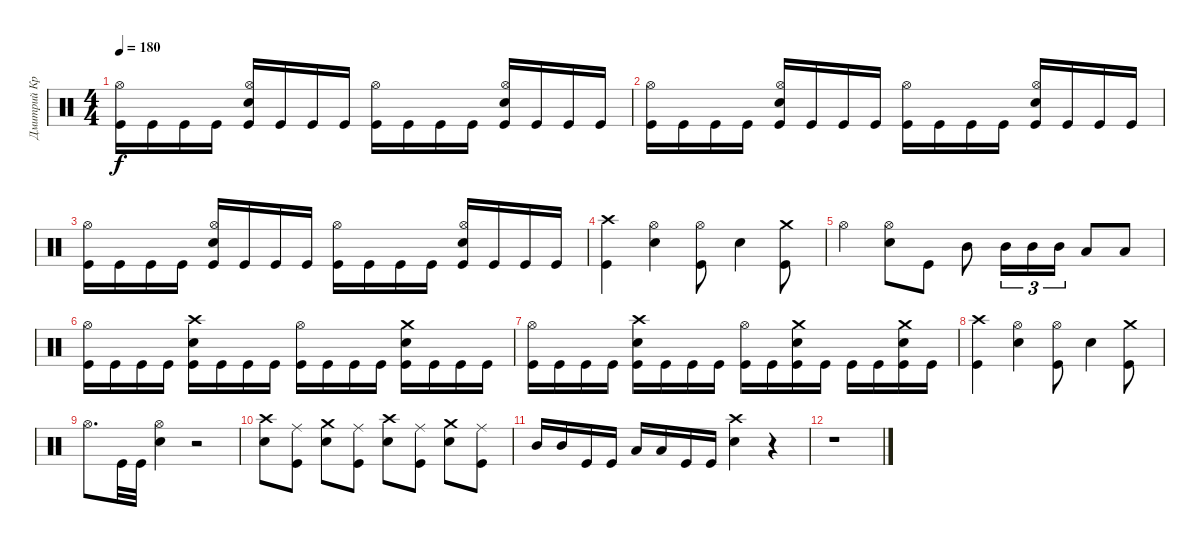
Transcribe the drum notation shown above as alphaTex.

\track ("Дмитрий Кривенков" "Дмитрий Кр") {instrument percussion}
\staff {score}
\articulation defaults
\ts (4 4)
\tempo 180
\clef neutral
\ks c
("Kick (hit)" "Hi-Hat (open)").16{dy f} "Kick (hit)".16 "Kick (hit)".16 "Kick (hit)".16 ("Kick (hit)" "Electric Snare (hit)" "Hi-Hat (open)").16 "Kick (hit)".16 "Kick (hit)".16 "Kick (hit)".16 ("Kick (hit)" "Hi-Hat (open)").16 "Kick (hit)".16 "Kick (hit)".16 "Kick (hit)".16 ("Kick (hit)" "Electric Snare (hit)" "Hi-Hat (open)").16 "Kick (hit)".16 "Kick (hit)".16 "Kick (hit)".16 |
("Kick (hit)" "Hi-Hat (open)").16 "Kick (hit)".16 "Kick (hit)".16 "Kick (hit)".16 ("Kick (hit)" "Electric Snare (hit)" "Hi-Hat (open)").16 "Kick (hit)".16 "Kick (hit)".16 "Kick (hit)".16 ("Kick (hit)" "Hi-Hat (open)").16 "Kick (hit)".16 "Kick (hit)".16 "Kick (hit)".16 ("Kick (hit)" "Electric Snare (hit)" "Hi-Hat (open)").16 "Kick (hit)".16 "Kick (hit)".16 "Kick (hit)".16 |
("Kick (hit)" "Hi-Hat (open)").16 "Kick (hit)".16 "Kick (hit)".16 "Kick (hit)".16 ("Hi-Hat (open)" "Electric Snare (hit)" "Kick (hit)").16 "Kick (hit)".16 "Kick (hit)".16 "Kick (hit)".16 ("Hi-Hat (open)" "Kick (hit)").16 "Kick (hit)".16 "Kick (hit)".16 "Kick (hit)".16 ("Hi-Hat (open)" "Electric Snare (hit)" "Kick (hit)").16 "Kick (hit)".16 "Kick (hit)".16 "Kick (hit)".16 |
("Crash high (hit)" "Kick (hit)").4 ("Hi-Hat (open)" "Electric Snare (hit)").4 ("Hi-Hat (open)" "Kick (hit)").8 "Electric Snare (hit)".4 ("Kick (hit)" "Crash medium (hit)").8 |
"Hi-Hat (open)".4 ("Electric Snare (hit)" "Hi-Hat (open)").8 "Kick (hit)".8 "Mid Tom (hit)".8 "Mid Tom (hit)".16{tu (3 2)} "Mid Tom (hit)".16{tu (3 2)} "Mid Tom (hit)".16{tu (3 2)} "Low Floor Tom (hit)".8 "Low Floor Tom (hit)".8 |
("Kick (hit)" "Hi-Hat (open)").16 "Kick (hit)".16 "Kick (hit)".16 "Kick (hit)".16 ("Kick (hit)" "Electric Snare (hit)" "Crash high (hit)").16 "Kick (hit)".16 "Kick (hit)".16 "Kick (hit)".16 ("Kick (hit)" "Hi-Hat (open)").16 "Kick (hit)".16 "Kick (hit)".16 "Kick (hit)".16 ("Kick (hit)" "Electric Snare (hit)" "Crash medium (hit)").16 "Kick (hit)".16 "Kick (hit)".16 "Kick (hit)".16 |
("Kick (hit)" "Hi-Hat (open)").16 "Kick (hit)".16 "Kick (hit)".16 "Kick (hit)".16 ("Kick (hit)" "Electric Snare (hit)" "Crash high (hit)").16 "Kick (hit)".16 "Kick (hit)".16 "Kick (hit)".16 ("Kick (hit)" "Hi-Hat (open)").16 "Kick (hit)".16 ("Kick (hit)" "Electric Snare (hit)" "Crash medium (hit)").16 "Kick (hit)".16 "Kick (hit)".16 "Kick (hit)".16 ("Kick (hit)" "Electric Snare (hit)" "Crash medium (hit)").16 "Kick (hit)".16 |
("Kick (hit)" "Crash high (hit)").4 ("Electric Snare (hit)" "Hi-Hat (open)").4 ("Kick (hit)" "Hi-Hat (open)").8 "Electric Snare (hit)".4 ("Kick (hit)" "Crash medium (hit)").8 |
"Hi-Hat (open)".8{d} "Kick (hit)".32 "Kick (hit)".32 ("Electric Snare (hit)" "Hi-Hat (open)").4 r.2 |
("Electric Snare (hit)" "Crash high (hit)").8 ("Kick (hit)" "Ride (middle)").8 ("Electric Snare (hit)" "Crash medium (hit)").8 ("Kick (hit)" "Ride (middle)").8 ("Electric Snare (hit)" "Crash high (hit)").8 ("Kick (hit)" "Ride (middle)").8 ("Electric Snare (hit)" "Crash medium (hit)").8 ("Kick (hit)" "Ride (middle)").8 |
"Mid Tom (hit)".16 "Mid Tom (hit)".16 "Kick (hit)".16 "Kick (hit)".16 "Low Floor Tom (hit)".16 "Low Floor Tom (hit)".16 "Kick (hit)".16 "Kick (hit)".16 ("Electric Snare (hit)" "Crash high (hit)").4 r.4 |
r.1
